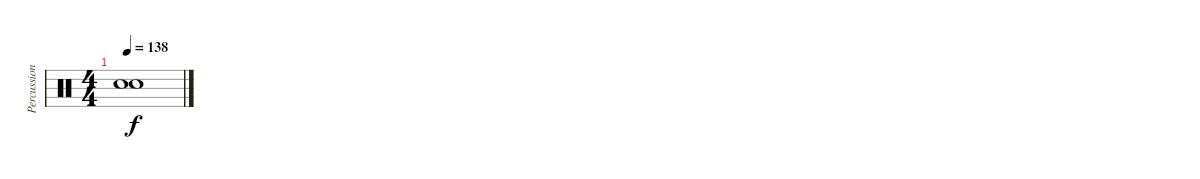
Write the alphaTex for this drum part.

\track ("Percussion" "Percussion") {instrument percussion}
\staff {score}
\articulation defaults
\ts (4 4)
\tempo 138
\clef neutral
\ks c
("Snare (hit) 2" "Snare (hit) 2").1{dy f}
